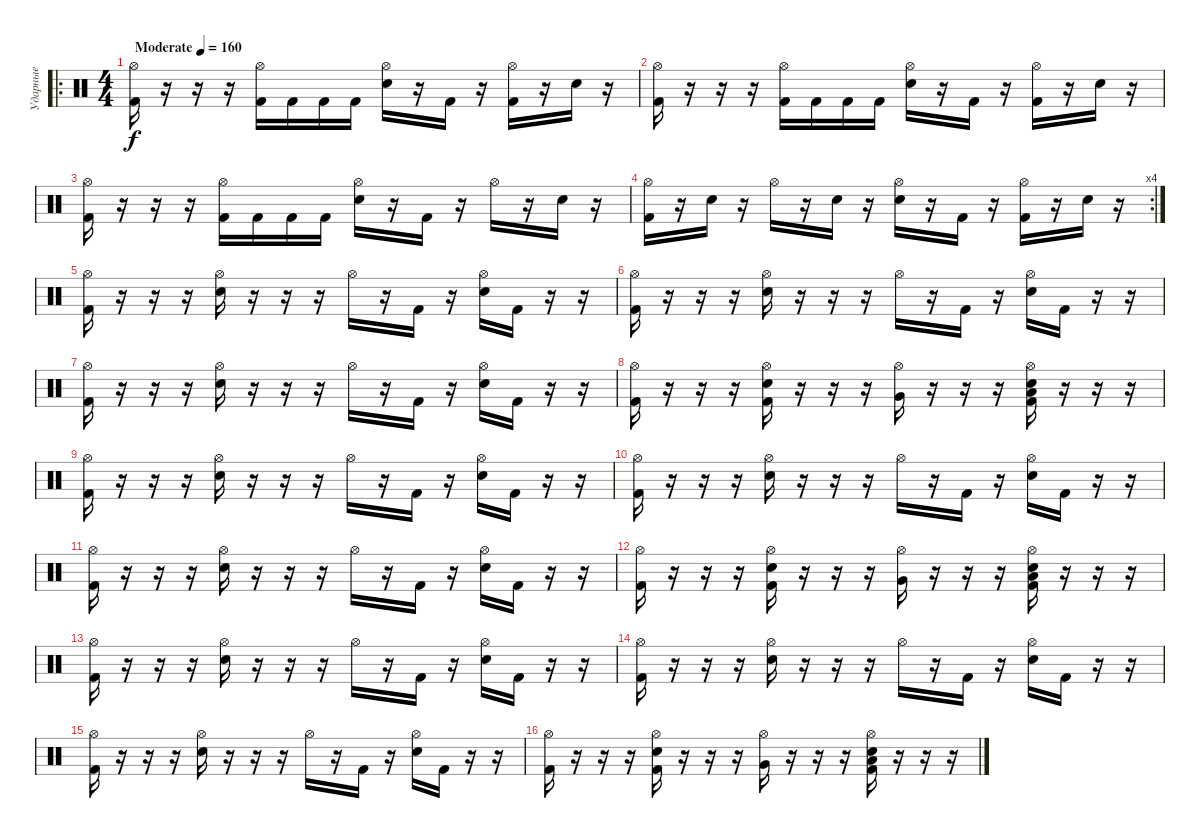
\track ("Ударные" "Ударные") {instrument percussion}
\staff {score}
\articulation defaults
\ro
\ts (4 4)
\tempo (160 "Moderate")
\clef neutral
\ks c
("Hi-Hat (open)" "Kick (hit) 2").16{dy f} r.16 r.16 r.16 ("Hi-Hat (open)" "Kick (hit) 2").16 "Kick (hit) 2".16 "Kick (hit) 2".16 "Kick (hit) 2".16 ("Hi-Hat (open)" "Electric Snare (hit)").16 r.16 "Kick (hit) 2".16 r.16 ("Hi-Hat (open)" "Kick (hit) 2").16 r.16 "Electric Snare (hit)".16 r.16 |
("Hi-Hat (open)" "Kick (hit) 2").16 r.16 r.16 r.16 ("Hi-Hat (open)" "Kick (hit) 2").16 "Kick (hit) 2".16 "Kick (hit) 2".16 "Kick (hit) 2".16 ("Hi-Hat (open)" "Electric Snare (hit)").16 r.16 "Kick (hit) 2".16 r.16 ("Hi-Hat (open)" "Kick (hit) 2").16 r.16 "Electric Snare (hit)".16 r.16 |
("Hi-Hat (open)" "Kick (hit) 2").16 r.16 r.16 r.16 ("Hi-Hat (open)" "Kick (hit) 2").16 "Kick (hit) 2".16 "Kick (hit) 2".16 "Kick (hit) 2".16 ("Hi-Hat (open)" "Electric Snare (hit)").16 r.16 "Kick (hit) 2".16 r.16 "Hi-Hat (open)".16 r.16 "Electric Snare (hit)".16 r.16 |
\rc 4
("Hi-Hat (open)" "Kick (hit) 2").16 r.16 "Electric Snare (hit)".16 r.16 "Hi-Hat (open)".16 r.16 "Electric Snare (hit)".16 r.16 ("Hi-Hat (open)" "Electric Snare (hit)").16 r.16 "Kick (hit) 2".16 r.16 ("Hi-Hat (open)" "Kick (hit) 2").16 r.16 "Electric Snare (hit)".16 r.16 |
("Hi-Hat (open)" "Kick (hit) 2").16 r.16 r.16 r.16 ("Hi-Hat (open)" "Electric Snare (hit)").16 r.16 r.16 r.16 "Hi-Hat (open)".16 r.16 "Kick (hit) 2".16 r.16 ("Hi-Hat (open)" "Electric Snare (hit)").16 "Kick (hit) 2".16 r.16 r.16 |
("Hi-Hat (open)" "Kick (hit) 2").16 r.16 r.16 r.16 ("Hi-Hat (open)" "Electric Snare (hit)").16 r.16 r.16 r.16 "Hi-Hat (open)".16 r.16 "Kick (hit) 2".16 r.16 ("Hi-Hat (open)" "Electric Snare (hit)").16 "Kick (hit) 2".16 r.16 r.16 |
("Hi-Hat (open)" "Kick (hit) 2").16 r.16 r.16 r.16 ("Hi-Hat (open)" "Electric Snare (hit)").16 r.16 r.16 r.16 "Hi-Hat (open)".16 r.16 "Kick (hit) 2".16 r.16 ("Hi-Hat (open)" "Electric Snare (hit)").16 "Kick (hit) 2".16 r.16 r.16 |
("Hi-Hat (open)" "Kick (hit) 2").16 r.16 r.16 r.16 ("Hi-Hat (open)" "Electric Snare (hit)" "Kick (hit) 2").16 r.16 r.16 r.16 ("Hi-Hat (open)" "Very Low Tom (hit)").16 r.16 r.16 r.16 ("Hi-Hat (open)" "Electric Snare (hit)" "Kick (hit) 2" "Low Floor Tom (hit)").16 r.16 r.16 r.16 |
("Hi-Hat (open)" "Kick (hit) 2").16 r.16 r.16 r.16 ("Hi-Hat (open)" "Electric Snare (hit)").16 r.16 r.16 r.16 "Hi-Hat (open)".16 r.16 "Kick (hit) 2".16 r.16 ("Hi-Hat (open)" "Electric Snare (hit)").16 "Kick (hit) 2".16 r.16 r.16 |
("Hi-Hat (open)" "Kick (hit) 2").16 r.16 r.16 r.16 ("Hi-Hat (open)" "Electric Snare (hit)").16 r.16 r.16 r.16 "Hi-Hat (open)".16 r.16 "Kick (hit) 2".16 r.16 ("Hi-Hat (open)" "Electric Snare (hit)").16 "Kick (hit) 2".16 r.16 r.16 |
("Hi-Hat (open)" "Kick (hit) 2").16 r.16 r.16 r.16 ("Hi-Hat (open)" "Electric Snare (hit)").16 r.16 r.16 r.16 "Hi-Hat (open)".16 r.16 "Kick (hit) 2".16 r.16 ("Hi-Hat (open)" "Electric Snare (hit)").16 "Kick (hit) 2".16 r.16 r.16 |
("Hi-Hat (open)" "Kick (hit) 2").16 r.16 r.16 r.16 ("Hi-Hat (open)" "Electric Snare (hit)" "Kick (hit) 2").16 r.16 r.16 r.16 ("Hi-Hat (open)" "Very Low Tom (hit)").16 r.16 r.16 r.16 ("Hi-Hat (open)" "Electric Snare (hit)" "Kick (hit) 2" "Low Floor Tom (hit)").16 r.16 r.16 r.16 |
("Hi-Hat (open)" "Kick (hit) 2").16 r.16 r.16 r.16 ("Hi-Hat (open)" "Electric Snare (hit)").16 r.16 r.16 r.16 "Hi-Hat (open)".16 r.16 "Kick (hit) 2".16 r.16 ("Hi-Hat (open)" "Electric Snare (hit)").16 "Kick (hit) 2".16 r.16 r.16 |
("Hi-Hat (open)" "Kick (hit) 2").16 r.16 r.16 r.16 ("Hi-Hat (open)" "Electric Snare (hit)").16 r.16 r.16 r.16 "Hi-Hat (open)".16 r.16 "Kick (hit) 2".16 r.16 ("Hi-Hat (open)" "Electric Snare (hit)").16 "Kick (hit) 2".16 r.16 r.16 |
("Hi-Hat (open)" "Kick (hit) 2").16 r.16 r.16 r.16 ("Hi-Hat (open)" "Electric Snare (hit)").16 r.16 r.16 r.16 "Hi-Hat (open)".16 r.16 "Kick (hit) 2".16 r.16 ("Hi-Hat (open)" "Electric Snare (hit)").16 "Kick (hit) 2".16 r.16 r.16 |
("Hi-Hat (open)" "Kick (hit) 2").16 r.16 r.16 r.16 ("Hi-Hat (open)" "Electric Snare (hit)" "Kick (hit) 2").16 r.16 r.16 r.16 ("Hi-Hat (open)" "Very Low Tom (hit)").16 r.16 r.16 r.16 ("Hi-Hat (open)" "Electric Snare (hit)" "Kick (hit) 2" "Low Floor Tom (hit)").16 r.16 r.16 r.16
